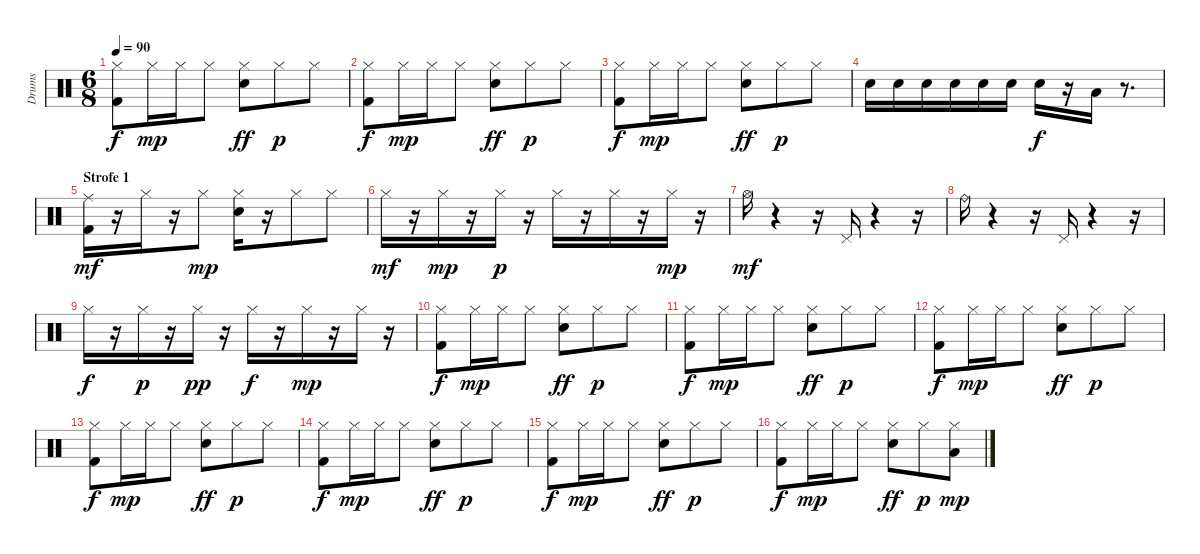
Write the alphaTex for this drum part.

\track ("Drums" "Drums") {instrument percussion}
\staff {score}
\articulation defaults
\ts (6 8)
\tempo 90
\clef neutral
\ks c
("Kick (hit) 2" "Hi-Hat (closed)").8{dy f} "Hi-Hat (closed)".16{dy mp} "Hi-Hat (closed)".16 "Hi-Hat (closed)".8 ("Hi-Hat (closed)" "Snare (hit) 2").8{dy ff} "Hi-Hat (closed)".8{dy p} "Hi-Hat (closed)".8 |
("Kick (hit) 2" "Hi-Hat (closed)").8{dy f} "Hi-Hat (closed)".16{dy mp} "Hi-Hat (closed)".16 "Hi-Hat (closed)".8 ("Hi-Hat (closed)" "Snare (hit) 2").8{dy ff} "Hi-Hat (closed)".8{dy p} "Hi-Hat (closed)".8 |
("Kick (hit) 2" "Hi-Hat (closed)").8{dy f} "Hi-Hat (closed)".16{dy mp} "Hi-Hat (closed)".16 "Hi-Hat (closed)".8 ("Hi-Hat (closed)" "Snare (hit) 2").8{dy ff} "Hi-Hat (closed)".8{dy p} "Hi-Hat (closed)".8 |
"Snare (hit) 2".16 "Snare (hit) 2".16 "Snare (hit) 2".16 "Snare (hit) 2".16 "Snare (hit) 2".16 "Snare (hit) 2".16 "Snare (hit) 2".16{dy f} r.16 "Low Tom (hit)".16 r.8{d} |
\section ("" "Strofe 1")
("Kick (hit) 2" "Ride (middle)").16{dy mf} r.16 "Hi-Hat (closed)".16 r.16 "Hi-Hat (closed)".8{dy mp} ("Hi-Hat (closed)" "Snare (hit) 2").16 r.16 "Hi-Hat (closed)".8 "Hi-Hat (closed)".8 |
"Hi-Hat (closed)".16{dy mf} r.16 "Hi-Hat (closed)".16{dy mp} r.16 "Hi-Hat (closed)".16{dy p} r.16 "Hi-Hat (closed)".16 r.16 "Hi-Hat (closed)".16 r.16 "Hi-Hat (closed)".16{dy mp} r.16 |
"Hi-Hat (open)".16{dy mf} r.4 r.16 "Pedal Hi-Hat (hit)".16 r.4 r.16 |
"Ride (bell)".16 r.4 r.16 "Pedal Hi-Hat (hit)".16 r.4 r.16 |
"Hi-Hat (closed)".16{dy f} r.16 "Hi-Hat (closed)".16{dy p} r.16 "Hi-Hat (closed)".16{dy pp} r.16 "Hi-Hat (closed)".16{dy f} r.16 "Hi-Hat (closed)".16{dy mp} r.16 "Hi-Hat (closed)".16 r.16 |
("Kick (hit) 2" "Hi-Hat (closed)").8{dy f} "Hi-Hat (closed)".16{dy mp} "Hi-Hat (closed)".16 "Hi-Hat (closed)".8 ("Hi-Hat (closed)" "Snare (hit) 2").8{dy ff} "Hi-Hat (closed)".8{dy p} "Hi-Hat (closed)".8 |
("Kick (hit) 2" "Hi-Hat (closed)").8{dy f} "Hi-Hat (closed)".16{dy mp} "Hi-Hat (closed)".16 "Hi-Hat (closed)".8 ("Hi-Hat (closed)" "Snare (hit) 2").8{dy ff} "Hi-Hat (closed)".8{dy p} "Hi-Hat (closed)".8 |
("Kick (hit) 2" "Hi-Hat (closed)").8{dy f} "Hi-Hat (closed)".16{dy mp} "Hi-Hat (closed)".16 "Hi-Hat (closed)".8 ("Hi-Hat (closed)" "Snare (hit) 2").8{dy ff} "Hi-Hat (closed)".8{dy p} "Hi-Hat (closed)".8 |
("Kick (hit) 2" "Hi-Hat (closed)").8{dy f} "Hi-Hat (closed)".16{dy mp} "Hi-Hat (closed)".16 "Hi-Hat (closed)".8 ("Hi-Hat (closed)" "Snare (hit) 2").8{dy ff} "Hi-Hat (closed)".8{dy p} "Hi-Hat (closed)".8 |
("Kick (hit) 2" "Hi-Hat (closed)").8{dy f} "Hi-Hat (closed)".16{dy mp} "Hi-Hat (closed)".16 "Hi-Hat (closed)".8 ("Hi-Hat (closed)" "Snare (hit) 2").8{dy ff} "Hi-Hat (closed)".8{dy p} "Hi-Hat (closed)".8 |
("Kick (hit) 2" "Hi-Hat (closed)").8{dy f} "Hi-Hat (closed)".16{dy mp} "Hi-Hat (closed)".16 "Hi-Hat (closed)".8 ("Hi-Hat (closed)" "Snare (hit) 2").8{dy ff} "Hi-Hat (closed)".8{dy p} "Hi-Hat (closed)".8 |
("Kick (hit) 2" "Hi-Hat (closed)").8{dy f} "Hi-Hat (closed)".16{dy mp} "Hi-Hat (closed)".16 "Hi-Hat (closed)".8 ("Hi-Hat (closed)" "Snare (hit) 2").8{dy ff} "Hi-Hat (closed)".8{dy p} ("Hi-Hat (closed)" "Low Tom (hit)").8{dy mp}
